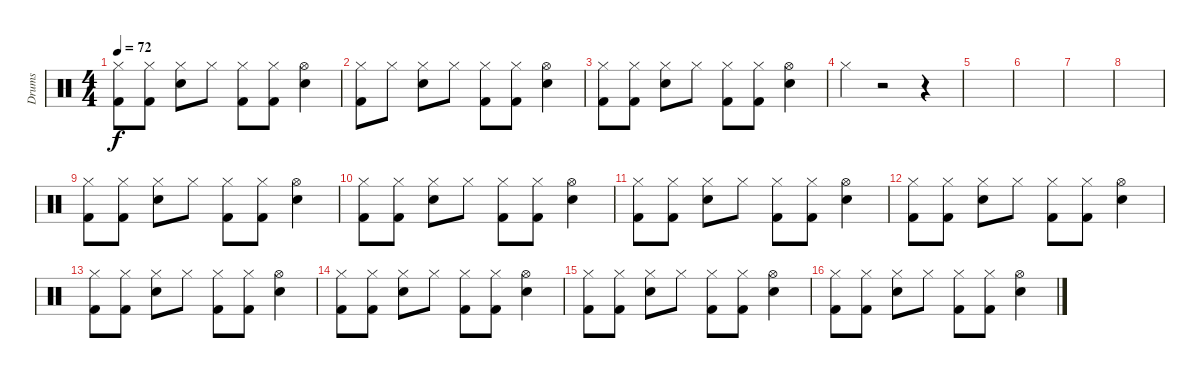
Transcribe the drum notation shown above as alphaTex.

\track ("Drums" "Drums") {instrument percussion}
\staff {score}
\articulation defaults
\ts (4 4)
\tempo 72
\clef neutral
\ks c
("Hi-Hat (closed)" "Kick (hit) 2").8{dy f} ("Hi-Hat (closed)" "Kick (hit) 2").8 ("Hi-Hat (closed)" "Electric Snare (hit)").8 "Hi-Hat (closed)".8 ("Hi-Hat (closed)" "Kick (hit) 2").8 ("Hi-Hat (closed)" "Kick (hit) 2").8 ("Hi-Hat (open)" "Electric Snare (hit)").4 |
("Hi-Hat (closed)" "Kick (hit) 2").8 "Hi-Hat (closed)".8 ("Hi-Hat (closed)" "Electric Snare (hit)").8 "Hi-Hat (closed)".8 ("Hi-Hat (closed)" "Kick (hit) 2").8 ("Hi-Hat (closed)" "Kick (hit) 2").8 ("Hi-Hat (open)" "Electric Snare (hit)").4 |
("Hi-Hat (closed)" "Kick (hit) 2").8 ("Hi-Hat (closed)" "Kick (hit) 2").8 ("Hi-Hat (closed)" "Electric Snare (hit)").8 "Hi-Hat (closed)".8 ("Hi-Hat (closed)" "Kick (hit) 2").8 ("Hi-Hat (closed)" "Kick (hit) 2").8 ("Hi-Hat (open)" "Electric Snare (hit)").4 |
"Hi-Hat (closed)".4 r.2 r.4 |
|
|
|
|
("Hi-Hat (closed)" "Kick (hit) 2").8 ("Hi-Hat (closed)" "Kick (hit) 2").8 ("Hi-Hat (closed)" "Electric Snare (hit)").8 "Hi-Hat (closed)".8 ("Hi-Hat (closed)" "Kick (hit) 2").8 ("Hi-Hat (closed)" "Kick (hit) 2").8 ("Hi-Hat (open)" "Electric Snare (hit)").4 |
("Hi-Hat (closed)" "Kick (hit) 2").8 ("Hi-Hat (closed)" "Kick (hit) 2").8 ("Hi-Hat (closed)" "Electric Snare (hit)").8 "Hi-Hat (closed)".8 ("Hi-Hat (closed)" "Kick (hit) 2").8 ("Hi-Hat (closed)" "Kick (hit) 2").8 ("Hi-Hat (open)" "Electric Snare (hit)").4 |
("Hi-Hat (closed)" "Kick (hit) 2").8 ("Hi-Hat (closed)" "Kick (hit) 2").8 ("Hi-Hat (closed)" "Electric Snare (hit)").8 "Hi-Hat (closed)".8 ("Hi-Hat (closed)" "Kick (hit) 2").8 ("Hi-Hat (closed)" "Kick (hit) 2").8 ("Hi-Hat (open)" "Electric Snare (hit)").4 |
("Hi-Hat (closed)" "Kick (hit) 2").8 ("Hi-Hat (closed)" "Kick (hit) 2").8 ("Hi-Hat (closed)" "Electric Snare (hit)").8 "Hi-Hat (closed)".8 ("Hi-Hat (closed)" "Kick (hit) 2").8 ("Hi-Hat (closed)" "Kick (hit) 2").8 ("Hi-Hat (open)" "Electric Snare (hit)").4 |
("Hi-Hat (closed)" "Kick (hit) 2").8 ("Hi-Hat (closed)" "Kick (hit) 2").8 ("Hi-Hat (closed)" "Electric Snare (hit)").8 "Hi-Hat (closed)".8 ("Hi-Hat (closed)" "Kick (hit) 2").8 ("Hi-Hat (closed)" "Kick (hit) 2").8 ("Hi-Hat (open)" "Electric Snare (hit)").4 |
("Hi-Hat (closed)" "Kick (hit) 2").8 ("Hi-Hat (closed)" "Kick (hit) 2").8 ("Hi-Hat (closed)" "Electric Snare (hit)").8 "Hi-Hat (closed)".8 ("Hi-Hat (closed)" "Kick (hit) 2").8 ("Hi-Hat (closed)" "Kick (hit) 2").8 ("Hi-Hat (open)" "Electric Snare (hit)").4 |
("Hi-Hat (closed)" "Kick (hit) 2").8 ("Hi-Hat (closed)" "Kick (hit) 2").8 ("Hi-Hat (closed)" "Electric Snare (hit)").8 "Hi-Hat (closed)".8 ("Hi-Hat (closed)" "Kick (hit) 2").8 ("Hi-Hat (closed)" "Kick (hit) 2").8 ("Hi-Hat (open)" "Electric Snare (hit)").4 |
("Hi-Hat (closed)" "Kick (hit) 2").8 ("Hi-Hat (closed)" "Kick (hit) 2").8 ("Hi-Hat (closed)" "Electric Snare (hit)").8 "Hi-Hat (closed)".8 ("Hi-Hat (closed)" "Kick (hit) 2").8 ("Hi-Hat (closed)" "Kick (hit) 2").8 ("Hi-Hat (open)" "Electric Snare (hit)").4
